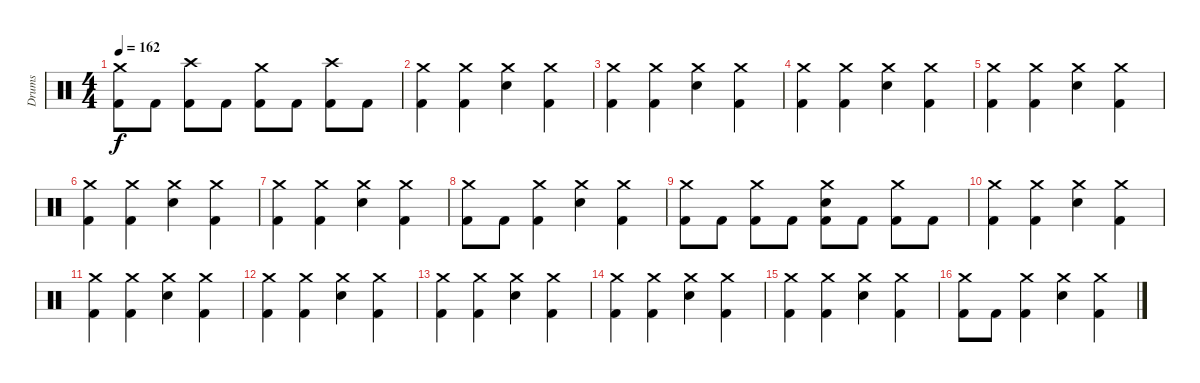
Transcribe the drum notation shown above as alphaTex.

\track ("Drums" "Drums") {instrument percussion}
\staff
\articulation defaults
\ts (4 4)
\tempo 162
\clef neutral
\ks c
("Crash medium (hit)" "Kick (hit) 2").8{dy f} "Kick (hit) 2".8 ("Crash high (hit)" "Kick (hit) 2").8 "Kick (hit) 2".8 ("Crash medium (hit)" "Kick (hit) 2").8 "Kick (hit) 2".8 ("Crash high (hit)" "Kick (hit) 2").8 "Kick (hit) 2".8 |
("Crash medium (hit)" "Kick (hit) 2").4 ("Crash medium (hit)" "Kick (hit) 2").4 ("Crash medium (hit)" "Electric Snare (hit)").4 ("Crash medium (hit)" "Kick (hit) 2").4 |
("Crash medium (hit)" "Kick (hit) 2").4 ("Crash medium (hit)" "Kick (hit) 2").4 ("Crash medium (hit)" "Electric Snare (hit)").4 ("Crash medium (hit)" "Kick (hit) 2").4 |
("Crash medium (hit)" "Kick (hit) 2").4 ("Crash medium (hit)" "Kick (hit) 2").4 ("Crash medium (hit)" "Electric Snare (hit)").4 ("Crash medium (hit)" "Kick (hit) 2").4 |
("Crash medium (hit)" "Kick (hit) 2").4 ("Crash medium (hit)" "Kick (hit) 2").4 ("Crash medium (hit)" "Electric Snare (hit)").4 ("Crash medium (hit)" "Kick (hit) 2").4 |
("Crash medium (hit)" "Kick (hit) 2").4 ("Crash medium (hit)" "Kick (hit) 2").4 ("Crash medium (hit)" "Electric Snare (hit)").4 ("Crash medium (hit)" "Kick (hit) 2").4 |
("Crash medium (hit)" "Kick (hit) 2").4 ("Crash medium (hit)" "Kick (hit) 2").4 ("Crash medium (hit)" "Electric Snare (hit)").4 ("Crash medium (hit)" "Kick (hit) 2").4 |
("Crash medium (hit)" "Kick (hit) 2").8 "Kick (hit) 2".8 ("Crash medium (hit)" "Kick (hit) 2").4 ("Crash medium (hit)" "Electric Snare (hit)").4 ("Crash medium (hit)" "Kick (hit) 2").4 |
("Crash medium (hit)" "Kick (hit) 2").8 "Kick (hit) 2".8 ("Crash medium (hit)" "Kick (hit) 2").8 "Kick (hit) 2".8 ("Crash medium (hit)" "Electric Snare (hit)" "Kick (hit) 2").8 "Kick (hit) 2".8 ("Crash medium (hit)" "Kick (hit) 2").8 "Kick (hit) 2".8 |
("Crash medium (hit)" "Kick (hit) 2").4 ("Crash medium (hit)" "Kick (hit) 2").4 ("Crash medium (hit)" "Electric Snare (hit)").4 ("Crash medium (hit)" "Kick (hit) 2").4 |
("Crash medium (hit)" "Kick (hit) 2").4 ("Crash medium (hit)" "Kick (hit) 2").4 ("Crash medium (hit)" "Electric Snare (hit)").4 ("Crash medium (hit)" "Kick (hit) 2").4 |
("Crash medium (hit)" "Kick (hit) 2").4 ("Crash medium (hit)" "Kick (hit) 2").4 ("Crash medium (hit)" "Electric Snare (hit)").4 ("Crash medium (hit)" "Kick (hit) 2").4 |
("Crash medium (hit)" "Kick (hit) 2").4 ("Crash medium (hit)" "Kick (hit) 2").4 ("Crash medium (hit)" "Electric Snare (hit)").4 ("Crash medium (hit)" "Kick (hit) 2").4 |
("Crash medium (hit)" "Kick (hit) 2").4 ("Crash medium (hit)" "Kick (hit) 2").4 ("Crash medium (hit)" "Electric Snare (hit)").4 ("Crash medium (hit)" "Kick (hit) 2").4 |
("Crash medium (hit)" "Kick (hit) 2").4 ("Crash medium (hit)" "Kick (hit) 2").4 ("Crash medium (hit)" "Electric Snare (hit)").4 ("Crash medium (hit)" "Kick (hit) 2").4 |
("Crash medium (hit)" "Kick (hit) 2").8 "Kick (hit) 2".8 ("Crash medium (hit)" "Kick (hit) 2").4 ("Crash medium (hit)" "Electric Snare (hit)").4 ("Crash medium (hit)" "Kick (hit) 2").4
